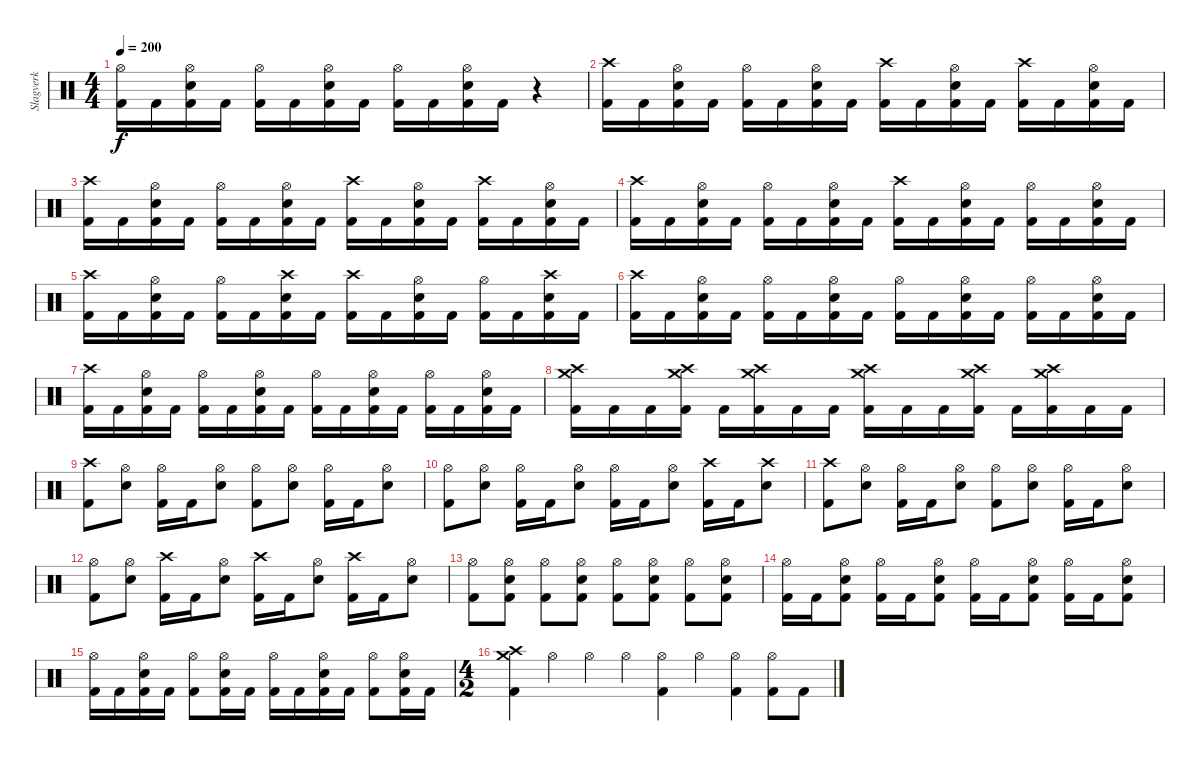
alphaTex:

\track ("Slagverk" "Slagverk") {instrument percussion}
\staff {score}
\articulation defaults
\ts (4 4)
\tempo 200
\clef neutral
\ks c
("Kick (hit) 2" "Hi-Hat (open)").16{dy f} "Kick (hit) 2".16 ("Kick (hit) 2" "Electric Snare (hit)" "Hi-Hat (open)").16 "Kick (hit) 2".16 ("Kick (hit) 2" "Hi-Hat (open)").16 "Kick (hit) 2".16 ("Kick (hit) 2" "Electric Snare (hit)" "Hi-Hat (open)").16 "Kick (hit) 2".16 ("Kick (hit) 2" "Hi-Hat (open)").16 "Kick (hit) 2".16 ("Kick (hit) 2" "Electric Snare (hit)" "Hi-Hat (open)").16 "Kick (hit) 2".16 r.4 |
("Kick (hit) 2" "Crash high (hit)").16 "Kick (hit) 2".16 ("Kick (hit) 2" "Electric Snare (hit)" "Hi-Hat (open)").16 "Kick (hit) 2".16 ("Kick (hit) 2" "Hi-Hat (open)").16 "Kick (hit) 2".16 ("Kick (hit) 2" "Electric Snare (hit)" "Hi-Hat (open)").16 "Kick (hit) 2".16 ("Kick (hit) 2" "Crash high (hit)").16 "Kick (hit) 2".16 ("Kick (hit) 2" "Electric Snare (hit)" "Hi-Hat (open)").16 "Kick (hit) 2".16 ("Kick (hit) 2" "Crash high (hit)").16 "Kick (hit) 2".16 ("Kick (hit) 2" "Electric Snare (hit)" "Hi-Hat (open)").16 "Kick (hit) 2".16 |
("Kick (hit) 2" "Crash high (hit)").16 "Kick (hit) 2".16 ("Kick (hit) 2" "Electric Snare (hit)" "Hi-Hat (open)").16 "Kick (hit) 2".16 ("Kick (hit) 2" "Hi-Hat (open)").16 "Kick (hit) 2".16 ("Kick (hit) 2" "Electric Snare (hit)" "Hi-Hat (open)").16 "Kick (hit) 2".16 ("Kick (hit) 2" "Crash high (hit)").16 "Kick (hit) 2".16 ("Kick (hit) 2" "Electric Snare (hit)" "Hi-Hat (open)").16 "Kick (hit) 2".16 ("Kick (hit) 2" "Crash high (hit)").16 "Kick (hit) 2".16 ("Kick (hit) 2" "Electric Snare (hit)" "Hi-Hat (open)").16 "Kick (hit) 2".16 |
("Kick (hit) 2" "Crash high (hit)").16 "Kick (hit) 2".16 ("Kick (hit) 2" "Electric Snare (hit)" "Hi-Hat (open)").16 "Kick (hit) 2".16 ("Kick (hit) 2" "Hi-Hat (open)").16 "Kick (hit) 2".16 ("Kick (hit) 2" "Electric Snare (hit)" "Hi-Hat (open)").16 "Kick (hit) 2".16 ("Kick (hit) 2" "Crash high (hit)").16 "Kick (hit) 2".16 ("Kick (hit) 2" "Electric Snare (hit)" "Hi-Hat (open)").16 "Kick (hit) 2".16 ("Kick (hit) 2" "Hi-Hat (open)").16 "Kick (hit) 2".16 ("Kick (hit) 2" "Electric Snare (hit)" "Hi-Hat (open)").16 "Kick (hit) 2".16 |
("Kick (hit) 2" "Crash high (hit)").16 "Kick (hit) 2".16 ("Kick (hit) 2" "Electric Snare (hit)" "Hi-Hat (open)").16 "Kick (hit) 2".16 ("Kick (hit) 2" "Hi-Hat (open)").16 "Kick (hit) 2".16 ("Kick (hit) 2" "Electric Snare (hit)" "Crash high (hit)").16 "Kick (hit) 2".16 ("Kick (hit) 2" "Crash high (hit)").16 "Kick (hit) 2".16 ("Kick (hit) 2" "Electric Snare (hit)" "Hi-Hat (open)").16 "Kick (hit) 2".16 ("Kick (hit) 2" "Hi-Hat (open)").16 "Kick (hit) 2".16 ("Kick (hit) 2" "Electric Snare (hit)" "Crash high (hit)").16 "Kick (hit) 2".16 |
("Kick (hit) 2" "Crash high (hit)").16 "Kick (hit) 2".16 ("Kick (hit) 2" "Electric Snare (hit)" "Hi-Hat (open)").16 "Kick (hit) 2".16 ("Kick (hit) 2" "Hi-Hat (open)").16 "Kick (hit) 2".16 ("Kick (hit) 2" "Electric Snare (hit)" "Hi-Hat (open)").16 "Kick (hit) 2".16 ("Kick (hit) 2" "Hi-Hat (open)").16 "Kick (hit) 2".16 ("Kick (hit) 2" "Electric Snare (hit)" "Hi-Hat (open)").16 "Kick (hit) 2".16 ("Kick (hit) 2" "Hi-Hat (open)").16 "Kick (hit) 2".16 ("Kick (hit) 2" "Electric Snare (hit)" "Hi-Hat (open)").16 "Kick (hit) 2".16 |
("Kick (hit) 2" "Crash high (hit)").16 "Kick (hit) 2".16 ("Kick (hit) 2" "Electric Snare (hit)" "Hi-Hat (open)").16 "Kick (hit) 2".16 ("Kick (hit) 2" "Hi-Hat (open)").16 "Kick (hit) 2".16 ("Kick (hit) 2" "Electric Snare (hit)" "Hi-Hat (open)").16 "Kick (hit) 2".16 ("Kick (hit) 2" "Hi-Hat (open)").16 "Kick (hit) 2".16 ("Kick (hit) 2" "Electric Snare (hit)" "Hi-Hat (open)").16 "Kick (hit) 2".16 ("Kick (hit) 2" "Hi-Hat (open)").16 "Kick (hit) 2".16 ("Kick (hit) 2" "Electric Snare (hit)" "Hi-Hat (open)").16 "Kick (hit) 2".16 |
("Kick (hit) 2" "Crash high (hit)" "Crash medium (hit)").16 "Kick (hit) 2".16 "Kick (hit) 2".16 ("Kick (hit) 2" "Crash high (hit)" "Crash medium (hit)").16 "Kick (hit) 2".16 ("Kick (hit) 2" "Crash high (hit)" "Crash medium (hit)").16 "Kick (hit) 2".16 "Kick (hit) 2".16 ("Kick (hit) 2" "Crash high (hit)" "Crash medium (hit)").16 "Kick (hit) 2".16 "Kick (hit) 2".16 ("Kick (hit) 2" "Crash high (hit)" "Crash medium (hit)").16 "Kick (hit) 2".16 ("Kick (hit) 2" "Crash high (hit)" "Crash medium (hit)").16 "Kick (hit) 2".16 "Kick (hit) 2".16 |
("Kick (hit) 2" "Crash high (hit)").8 ("Electric Snare (hit)" "Hi-Hat (open)").8 ("Kick (hit) 2" "Hi-Hat (open)").16 "Kick (hit) 2".16 ("Electric Snare (hit)" "Hi-Hat (open)").8 ("Kick (hit) 2" "Hi-Hat (open)").8 ("Electric Snare (hit)" "Hi-Hat (open)").8 ("Kick (hit) 2" "Hi-Hat (open)").16 "Kick (hit) 2".16 ("Electric Snare (hit)" "Hi-Hat (open)").8 |
("Kick (hit) 2" "Hi-Hat (open)").8 ("Electric Snare (hit)" "Hi-Hat (open)").8 ("Kick (hit) 2" "Hi-Hat (open)").16 "Kick (hit) 2".16 ("Electric Snare (hit)" "Hi-Hat (open)").8 ("Kick (hit) 2" "Hi-Hat (open)").16 "Kick (hit) 2".16 ("Electric Snare (hit)" "Hi-Hat (open)").8 ("Kick (hit) 2" "Crash high (hit)").16 "Kick (hit) 2".16 ("Electric Snare (hit)" "Crash high (hit)").8 |
("Kick (hit) 2" "Crash high (hit)").8 ("Electric Snare (hit)" "Hi-Hat (open)").8 ("Kick (hit) 2" "Hi-Hat (open)").16 "Kick (hit) 2".16 ("Electric Snare (hit)" "Hi-Hat (open)").8 ("Kick (hit) 2" "Hi-Hat (open)").8 ("Electric Snare (hit)" "Hi-Hat (open)").8 ("Kick (hit) 2" "Hi-Hat (open)").16 "Kick (hit) 2".16 ("Electric Snare (hit)" "Hi-Hat (open)").8 |
("Kick (hit) 2" "Hi-Hat (open)").8 ("Electric Snare (hit)" "Hi-Hat (open)").8 ("Kick (hit) 2" "Crash high (hit)").16 "Kick (hit) 2".16 ("Electric Snare (hit)" "Hi-Hat (open)").8 ("Kick (hit) 2" "Crash high (hit)").16 "Kick (hit) 2".16 ("Electric Snare (hit)" "Hi-Hat (open)").8 ("Kick (hit) 2" "Crash high (hit)").16 "Kick (hit) 2".16 ("Electric Snare (hit)" "Hi-Hat (open)").8 |
("Kick (hit) 2" "Hi-Hat (open)").8 ("Kick (hit) 2" "Electric Snare (hit)" "Hi-Hat (open)").8 ("Kick (hit) 2" "Hi-Hat (open)").8 ("Kick (hit) 2" "Electric Snare (hit)" "Hi-Hat (open)").8 ("Kick (hit) 2" "Hi-Hat (open)").8 ("Kick (hit) 2" "Electric Snare (hit)" "Hi-Hat (open)").8 ("Kick (hit) 2" "Hi-Hat (open)").8 ("Kick (hit) 2" "Electric Snare (hit)" "Hi-Hat (open)").8 |
("Kick (hit) 2" "Hi-Hat (open)").16 "Kick (hit) 2".16 ("Kick (hit) 2" "Electric Snare (hit)" "Hi-Hat (open)").8 ("Kick (hit) 2" "Hi-Hat (open)").16 "Kick (hit) 2".16 ("Kick (hit) 2" "Electric Snare (hit)" "Hi-Hat (open)").8 ("Kick (hit) 2" "Hi-Hat (open)").16 "Kick (hit) 2".16 ("Kick (hit) 2" "Electric Snare (hit)" "Hi-Hat (open)").8 ("Kick (hit) 2" "Hi-Hat (open)").16 "Kick (hit) 2".16 ("Kick (hit) 2" "Electric Snare (hit)" "Hi-Hat (open)").8 |
("Kick (hit) 2" "Hi-Hat (open)").16 "Kick (hit) 2".16 ("Kick (hit) 2" "Electric Snare (hit)" "Hi-Hat (open)").16 "Kick (hit) 2".16 ("Kick (hit) 2" "Hi-Hat (open)").8 ("Kick (hit) 2" "Electric Snare (hit)" "Hi-Hat (open)").16 "Kick (hit) 2".16 ("Kick (hit) 2" "Hi-Hat (open)").16 "Kick (hit) 2".16 ("Kick (hit) 2" "Electric Snare (hit)" "Hi-Hat (open)").16 "Kick (hit) 2".16 ("Kick (hit) 2" "Hi-Hat (open)").8 ("Kick (hit) 2" "Electric Snare (hit)" "Hi-Hat (open)").16 "Kick (hit) 2".16 |
\ts (4 2)
("Kick (hit) 2" "Crash high (hit)" "Crash medium (hit)").4 "Hi-Hat (open)".4 "Hi-Hat (open)".4 "Hi-Hat (open)".4 ("Kick (hit) 2" "Hi-Hat (open)").4 "Hi-Hat (open)".4 ("Kick (hit) 2" "Hi-Hat (open)").4 ("Kick (hit) 2" "Hi-Hat (open)").8 "Kick (hit) 2".8
